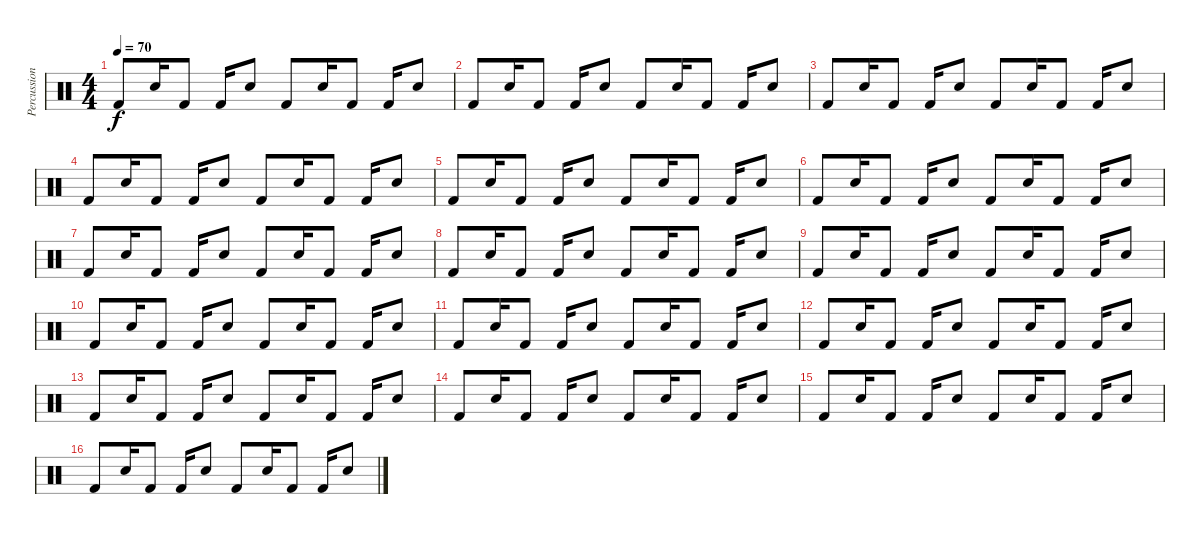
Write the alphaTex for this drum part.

\track ("Percussion" "Percussion") {instrument percussion}
\staff {score}
\articulation defaults
\ts (4 4)
\tempo 70
\clef neutral
\ks c "Kick (hit) 2".8{dy f} "Snare (hit) 2".16 "Kick (hit) 2".8 "Kick (hit) 2".16 "Snare (hit) 2".8 "Kick (hit) 2".8 "Snare (hit) 2".16 "Kick (hit) 2".8 "Kick (hit) 2".16 "Snare (hit) 2".8
|
"Kick (hit) 2".8 "Snare (hit) 2".16 "Kick (hit) 2".8 "Kick (hit) 2".16 "Snare (hit) 2".8 "Kick (hit) 2".8 "Snare (hit) 2".16 "Kick (hit) 2".8 "Kick (hit) 2".16 "Snare (hit) 2".8 |
"Kick (hit) 2".8 "Snare (hit) 2".16 "Kick (hit) 2".8 "Kick (hit) 2".16 "Snare (hit) 2".8 "Kick (hit) 2".8 "Snare (hit) 2".16 "Kick (hit) 2".8 "Kick (hit) 2".16 "Snare (hit) 2".8 |
"Kick (hit) 2".8 "Snare (hit) 2".16 "Kick (hit) 2".8 "Kick (hit) 2".16 "Snare (hit) 2".8 "Kick (hit) 2".8 "Snare (hit) 2".16 "Kick (hit) 2".8 "Kick (hit) 2".16 "Snare (hit) 2".8 |
"Kick (hit) 2".8 "Snare (hit) 2".16 "Kick (hit) 2".8 "Kick (hit) 2".16 "Snare (hit) 2".8 "Kick (hit) 2".8 "Snare (hit) 2".16 "Kick (hit) 2".8 "Kick (hit) 2".16 "Snare (hit) 2".8 |
"Kick (hit) 2".8 "Snare (hit) 2".16 "Kick (hit) 2".8 "Kick (hit) 2".16 "Snare (hit) 2".8 "Kick (hit) 2".8 "Snare (hit) 2".16 "Kick (hit) 2".8 "Kick (hit) 2".16 "Snare (hit) 2".8 |
"Kick (hit) 2".8 "Snare (hit) 2".16 "Kick (hit) 2".8 "Kick (hit) 2".16 "Snare (hit) 2".8 "Kick (hit) 2".8 "Snare (hit) 2".16 "Kick (hit) 2".8 "Kick (hit) 2".16 "Snare (hit) 2".8 |
"Kick (hit) 2".8 "Snare (hit) 2".16 "Kick (hit) 2".8 "Kick (hit) 2".16 "Snare (hit) 2".8 "Kick (hit) 2".8 "Snare (hit) 2".16 "Kick (hit) 2".8 "Kick (hit) 2".16 "Snare (hit) 2".8 |
"Kick (hit) 2".8 "Snare (hit) 2".16 "Kick (hit) 2".8 "Kick (hit) 2".16 "Snare (hit) 2".8 "Kick (hit) 2".8 "Snare (hit) 2".16 "Kick (hit) 2".8 "Kick (hit) 2".16 "Snare (hit) 2".8 |
"Kick (hit) 2".8 "Snare (hit) 2".16 "Kick (hit) 2".8 "Kick (hit) 2".16 "Snare (hit) 2".8 "Kick (hit) 2".8 "Snare (hit) 2".16 "Kick (hit) 2".8 "Kick (hit) 2".16 "Snare (hit) 2".8 |
"Kick (hit) 2".8 "Snare (hit) 2".16 "Kick (hit) 2".8 "Kick (hit) 2".16 "Snare (hit) 2".8 "Kick (hit) 2".8 "Snare (hit) 2".16 "Kick (hit) 2".8 "Kick (hit) 2".16 "Snare (hit) 2".8 |
"Kick (hit) 2".8 "Snare (hit) 2".16 "Kick (hit) 2".8 "Kick (hit) 2".16 "Snare (hit) 2".8 "Kick (hit) 2".8 "Snare (hit) 2".16 "Kick (hit) 2".8 "Kick (hit) 2".16 "Snare (hit) 2".8 |
"Kick (hit) 2".8 "Snare (hit) 2".16 "Kick (hit) 2".8 "Kick (hit) 2".16 "Snare (hit) 2".8 "Kick (hit) 2".8 "Snare (hit) 2".16 "Kick (hit) 2".8 "Kick (hit) 2".16 "Snare (hit) 2".8 |
"Kick (hit) 2".8 "Snare (hit) 2".16 "Kick (hit) 2".8 "Kick (hit) 2".16 "Snare (hit) 2".8 "Kick (hit) 2".8 "Snare (hit) 2".16 "Kick (hit) 2".8 "Kick (hit) 2".16 "Snare (hit) 2".8 |
"Kick (hit) 2".8 "Snare (hit) 2".16 "Kick (hit) 2".8 "Kick (hit) 2".16 "Snare (hit) 2".8 "Kick (hit) 2".8 "Snare (hit) 2".16 "Kick (hit) 2".8 "Kick (hit) 2".16 "Snare (hit) 2".8 |
"Kick (hit) 2".8 "Snare (hit) 2".16 "Kick (hit) 2".8 "Kick (hit) 2".16 "Snare (hit) 2".8 "Kick (hit) 2".8 "Snare (hit) 2".16 "Kick (hit) 2".8 "Kick (hit) 2".16 "Snare (hit) 2".8
